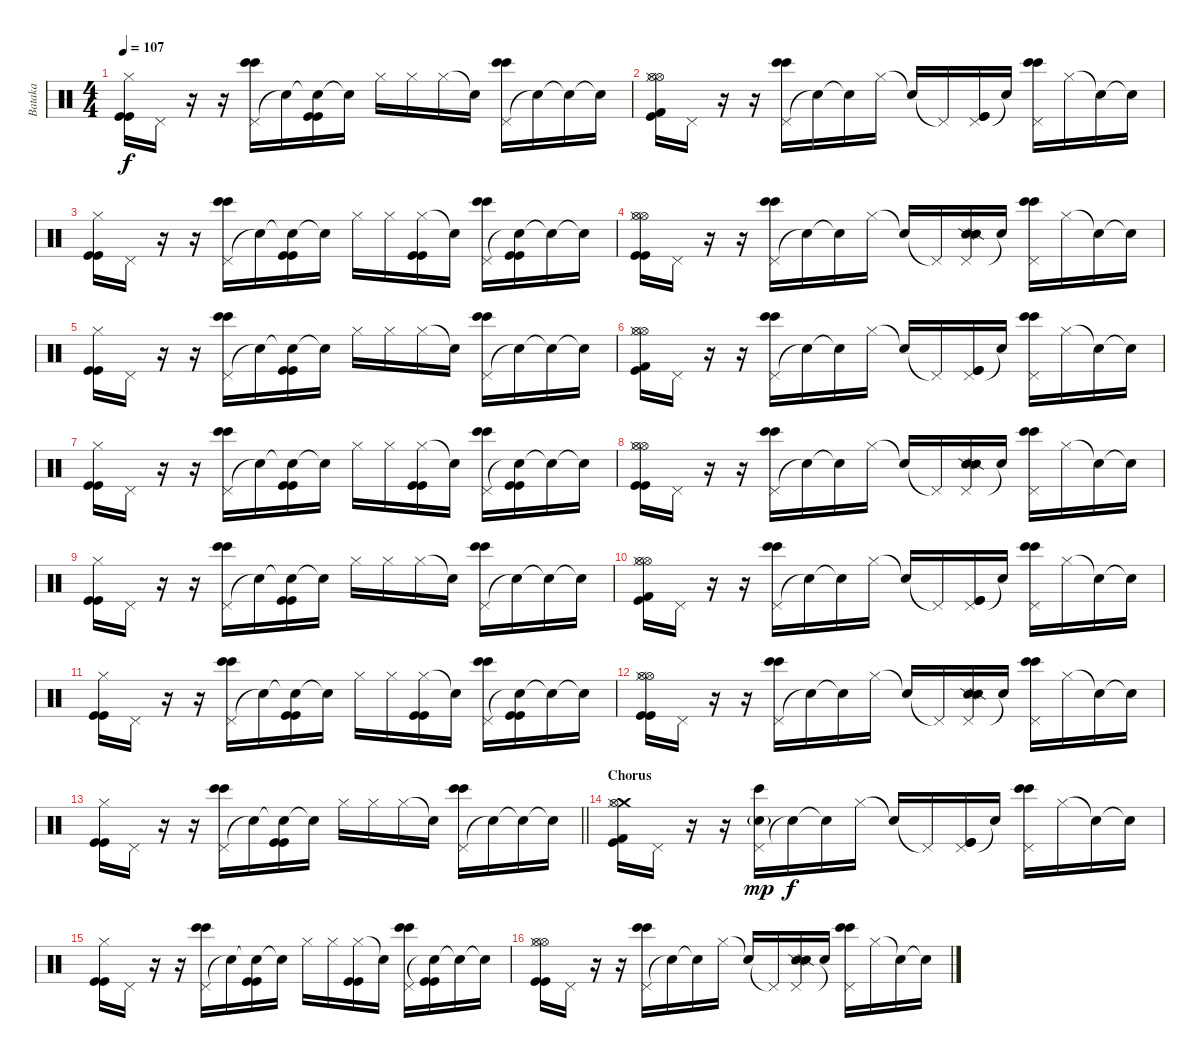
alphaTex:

\track ("Bataka" "Bataka") {instrument percussion}
\staff {score}
\articulation defaults
\ts (4 4)
\tempo 107
\clef neutral
\ks c
("Hi-Hat (closed)" "Kick (hit)" "Kick (hit)").16{dy f} "Pedal Hi-Hat (hit)".16 r.16 r.16 ("Pedal Hi-Hat (hit)" "Bongo High (hit)" "Bongo High (hit)").16 "Snare (hit)"{t}.16 ("Snare (hit)"{t} "Kick (hit)" "Kick (hit)").16 "Snare (hit)"{t}.16 "Hi-Hat (closed)".16 "Hi-Hat (closed)".16 "Hi-Hat (closed)".16 "Snare (hit)"{t}.16 ("Pedal Hi-Hat (hit)" "Bongo High (hit)" "Bongo High (hit)").16 "Snare (hit)"{t}.16 "Snare (hit)"{t}.16 "Snare (hit)"{t}.16 |
("Hi-Hat (open)" "Hi-Hat (open)" "Hi-Hat (closed)" "Kick (hit)" "Kick (hit) 2").16 "Pedal Hi-Hat (hit)".16 r.16 r.16 ("Pedal Hi-Hat (hit)" "Bongo High (hit)" "Bongo High (hit)").16 "Snare (hit)"{t}.16 "Snare (hit)"{t}.16 "Hi-Hat (closed)".16 "Snare (hit)"{t}.16 "Pedal Hi-Hat (hit)"{t}.16 ("Pedal Hi-Hat (hit)" "Kick (hit)" "Kick (hit)").16 "Snare (hit)"{t}.16 ("Pedal Hi-Hat (hit)" "Bongo High (hit)" "Bongo High (hit)").16 "Hi-Hat (closed)".16 "Snare (hit)"{t}.16 "Snare (hit)"{t}.16 |
("Hi-Hat (closed)" "Kick (hit)" "Kick (hit)").16 "Pedal Hi-Hat (hit)".16 r.16 r.16 ("Pedal Hi-Hat (hit)" "Bongo High (hit)" "Bongo High (hit)").16 "Snare (hit)"{t}.16 ("Snare (hit)"{t} "Kick (hit)" "Kick (hit)").16 "Snare (hit)"{t}.16 "Hi-Hat (closed)".16 "Hi-Hat (closed)".16 ("Hi-Hat (closed)" "Kick (hit)" "Kick (hit)").16 "Snare (hit)"{t}.16 ("Pedal Hi-Hat (hit)" "Bongo High (hit)" "Bongo High (hit)").16 ("Snare (hit)"{t} "Kick (hit)" "Kick (hit)").16 "Snare (hit)"{t}.16 "Snare (hit)"{t}.16 |
("Hi-Hat (open)" "Hi-Hat (open)" "Hi-Hat (closed)" "Kick (hit)" "Kick (hit)").16 "Pedal Hi-Hat (hit)".16 r.16 r.16 ("Pedal Hi-Hat (hit)" "Bongo High (hit)" "Bongo High (hit)").16 "Snare (hit)"{t}.16 "Snare (hit)"{t}.16 "Hi-Hat (closed)".16 "Snare (hit)"{t}.16 "Pedal Hi-Hat (hit)"{t}.16 ("Pedal Hi-Hat (hit)" "Snare (side stick) 2" "Snare (side stick) 2").16 "Snare (hit)"{t}.16 ("Pedal Hi-Hat (hit)" "Bongo High (hit)" "Bongo High (hit)").16 "Hi-Hat (closed)".16 "Snare (hit)"{t}.16 "Snare (hit)"{t}.16 |
("Hi-Hat (closed)" "Kick (hit)" "Kick (hit)").16 "Pedal Hi-Hat (hit)".16 r.16 r.16 ("Pedal Hi-Hat (hit)" "Bongo High (hit)" "Bongo High (hit)").16 "Snare (hit)"{t}.16 ("Snare (hit)"{t} "Kick (hit)" "Kick (hit)").16 "Snare (hit)"{t}.16 "Hi-Hat (closed)".16 "Hi-Hat (closed)".16 "Hi-Hat (closed)".16 "Snare (hit)"{t}.16 ("Pedal Hi-Hat (hit)" "Bongo High (hit)" "Bongo High (hit)").16 "Snare (hit)"{t}.16 "Snare (hit)"{t}.16 "Snare (hit)"{t}.16 |
("Hi-Hat (open)" "Hi-Hat (open)" "Hi-Hat (closed)" "Kick (hit)" "Kick (hit) 2").16 "Pedal Hi-Hat (hit)".16 r.16 r.16 ("Pedal Hi-Hat (hit)" "Bongo High (hit)" "Bongo High (hit)").16 "Snare (hit)"{t}.16 "Snare (hit)"{t}.16 "Hi-Hat (closed)".16 "Snare (hit)"{t}.16 "Pedal Hi-Hat (hit)"{t}.16 ("Pedal Hi-Hat (hit)" "Kick (hit)" "Kick (hit)").16 "Snare (hit)"{t}.16 ("Pedal Hi-Hat (hit)" "Bongo High (hit)" "Bongo High (hit)").16 "Hi-Hat (closed)".16 "Snare (hit)"{t}.16 "Snare (hit)"{t}.16 |
("Hi-Hat (closed)" "Kick (hit)" "Kick (hit)").16 "Pedal Hi-Hat (hit)".16 r.16 r.16 ("Pedal Hi-Hat (hit)" "Bongo High (hit)" "Bongo High (hit)").16 "Snare (hit)"{t}.16 ("Snare (hit)"{t} "Kick (hit)" "Kick (hit)").16 "Snare (hit)"{t}.16 "Hi-Hat (closed)".16 "Hi-Hat (closed)".16 ("Hi-Hat (closed)" "Kick (hit)" "Kick (hit)").16 "Snare (hit)"{t}.16 ("Pedal Hi-Hat (hit)" "Bongo High (hit)" "Bongo High (hit)").16 ("Snare (hit)"{t} "Kick (hit)" "Kick (hit)").16 "Snare (hit)"{t}.16 "Snare (hit)"{t}.16 |
("Hi-Hat (open)" "Hi-Hat (open)" "Hi-Hat (closed)" "Kick (hit)" "Kick (hit)").16 "Pedal Hi-Hat (hit)".16 r.16 r.16 ("Pedal Hi-Hat (hit)" "Bongo High (hit)" "Bongo High (hit)").16 "Snare (hit)"{t}.16 "Snare (hit)"{t}.16 "Hi-Hat (closed)".16 "Snare (hit)"{t}.16 "Pedal Hi-Hat (hit)"{t}.16 ("Pedal Hi-Hat (hit)" "Snare (side stick) 2" "Snare (side stick) 2").16 "Snare (hit)"{t}.16 ("Pedal Hi-Hat (hit)" "Bongo High (hit)" "Bongo High (hit)").16 "Hi-Hat (closed)".16 "Snare (hit)"{t}.16 "Snare (hit)"{t}.16 |
("Hi-Hat (closed)" "Kick (hit)" "Kick (hit)").16 "Pedal Hi-Hat (hit)".16 r.16 r.16 ("Pedal Hi-Hat (hit)" "Bongo High (hit)" "Bongo High (hit)").16 "Snare (hit)"{t}.16 ("Snare (hit)"{t} "Kick (hit)" "Kick (hit)").16 "Snare (hit)"{t}.16 "Hi-Hat (closed)".16 "Hi-Hat (closed)".16 "Hi-Hat (closed)".16 "Snare (hit)"{t}.16 ("Pedal Hi-Hat (hit)" "Bongo High (hit)" "Bongo High (hit)").16 "Snare (hit)"{t}.16 "Snare (hit)"{t}.16 "Snare (hit)"{t}.16 |
("Hi-Hat (open)" "Hi-Hat (open)" "Hi-Hat (closed)" "Kick (hit)" "Kick (hit) 2").16 "Pedal Hi-Hat (hit)".16 r.16 r.16 ("Pedal Hi-Hat (hit)" "Bongo High (hit)" "Bongo High (hit)").16 "Snare (hit)"{t}.16 "Snare (hit)"{t}.16 "Hi-Hat (closed)".16 "Snare (hit)"{t}.16 "Pedal Hi-Hat (hit)"{t}.16 ("Pedal Hi-Hat (hit)" "Kick (hit)" "Kick (hit)").16 "Snare (hit)"{t}.16 ("Pedal Hi-Hat (hit)" "Bongo High (hit)" "Bongo High (hit)").16 "Hi-Hat (closed)".16 "Snare (hit)"{t}.16 "Snare (hit)"{t}.16 |
("Hi-Hat (closed)" "Kick (hit)" "Kick (hit)").16 "Pedal Hi-Hat (hit)".16 r.16 r.16 ("Pedal Hi-Hat (hit)" "Bongo High (hit)" "Bongo High (hit)").16 "Snare (hit)"{t}.16 ("Snare (hit)"{t} "Kick (hit)" "Kick (hit)").16 "Snare (hit)"{t}.16 "Hi-Hat (closed)".16 "Hi-Hat (closed)".16 ("Hi-Hat (closed)" "Kick (hit)" "Kick (hit)").16 "Snare (hit)"{t}.16 ("Pedal Hi-Hat (hit)" "Bongo High (hit)" "Bongo High (hit)").16 ("Snare (hit)"{t} "Kick (hit)" "Kick (hit)").16 "Snare (hit)"{t}.16 "Snare (hit)"{t}.16 |
("Hi-Hat (open)" "Hi-Hat (open)" "Hi-Hat (closed)" "Kick (hit)" "Kick (hit)").16 "Pedal Hi-Hat (hit)".16 r.16 r.16 ("Pedal Hi-Hat (hit)" "Bongo High (hit)" "Bongo High (hit)").16 "Snare (hit)"{t}.16 "Snare (hit)"{t}.16 "Hi-Hat (closed)".16 "Snare (hit)"{t}.16 "Pedal Hi-Hat (hit)"{t}.16 ("Pedal Hi-Hat (hit)" "Snare (side stick) 2" "Snare (side stick) 2").16 "Snare (hit)"{t}.16 ("Pedal Hi-Hat (hit)" "Bongo High (hit)" "Bongo High (hit)").16 "Hi-Hat (closed)".16 "Snare (hit)"{t}.16 "Snare (hit)"{t}.16 |
\barLineRight lightlight
("Hi-Hat (closed)" "Kick (hit)" "Kick (hit)").16 "Pedal Hi-Hat (hit)".16 r.16 r.16 ("Pedal Hi-Hat (hit)" "Bongo High (hit)" "Bongo High (hit)").16 "Snare (hit)"{t}.16 ("Snare (hit)"{t} "Kick (hit)" "Kick (hit)").16 "Snare (hit)"{t}.16 "Hi-Hat (closed)".16 "Hi-Hat (closed)".16 "Hi-Hat (closed)".16 "Snare (hit)"{t}.16 ("Pedal Hi-Hat (hit)" "Bongo High (hit)" "Bongo High (hit)").16 "Snare (hit)"{t}.16 "Snare (hit)"{t}.16 "Snare (hit)"{t}.16 |
\section ("" "Chorus")
("Crash medium (hit)" "Hi-Hat (open)" "Hi-Hat (closed)" "Kick (hit)" "Kick (hit) 2").16 "Pedal Hi-Hat (hit)".16 r.16 r.16 ("Pedal Hi-Hat (hit)" "Bongo High (hit)" "Electric Snare (hit)"{g}).16{dy mp} "Snare (hit)"{t}.16{dy f} "Snare (hit)"{t}.16 "Hi-Hat (closed)".16 "Snare (hit)"{t}.16 "Pedal Hi-Hat (hit)"{t}.16 ("Pedal Hi-Hat (hit)" "Kick (hit)" "Kick (hit)").16 "Snare (hit)"{t}.16 ("Pedal Hi-Hat (hit)" "Bongo High (hit)" "Bongo High (hit)").16 "Hi-Hat (closed)".16 "Snare (hit)"{t}.16 "Snare (hit)"{t}.16 |
("Hi-Hat (closed)" "Kick (hit)" "Kick (hit)").16 "Pedal Hi-Hat (hit)".16 r.16 r.16 ("Pedal Hi-Hat (hit)" "Bongo High (hit)" "Bongo High (hit)").16 "Snare (hit)"{t}.16 ("Snare (hit)"{t} "Kick (hit)" "Kick (hit)").16 "Snare (hit)"{t}.16 "Hi-Hat (closed)".16 "Hi-Hat (closed)".16 ("Hi-Hat (closed)" "Kick (hit)" "Kick (hit)").16 "Snare (hit)"{t}.16 ("Pedal Hi-Hat (hit)" "Bongo High (hit)" "Bongo High (hit)").16 ("Snare (hit)"{t} "Kick (hit)" "Kick (hit)").16 "Snare (hit)"{t}.16 "Snare (hit)"{t}.16 |
("Hi-Hat (open)" "Hi-Hat (open)" "Hi-Hat (closed)" "Kick (hit)" "Kick (hit)").16 "Pedal Hi-Hat (hit)".16 r.16 r.16 ("Pedal Hi-Hat (hit)" "Bongo High (hit)" "Bongo High (hit)").16 "Snare (hit)"{t}.16 "Snare (hit)"{t}.16 "Hi-Hat (closed)".16 "Snare (hit)"{t}.16 "Pedal Hi-Hat (hit)"{t}.16 ("Pedal Hi-Hat (hit)" "Snare (side stick) 2" "Snare (side stick) 2").16 "Snare (hit)"{t}.16 ("Pedal Hi-Hat (hit)" "Bongo High (hit)" "Bongo High (hit)").16 "Hi-Hat (closed)".16 "Snare (hit)"{t}.16 "Snare (hit)"{t}.16
